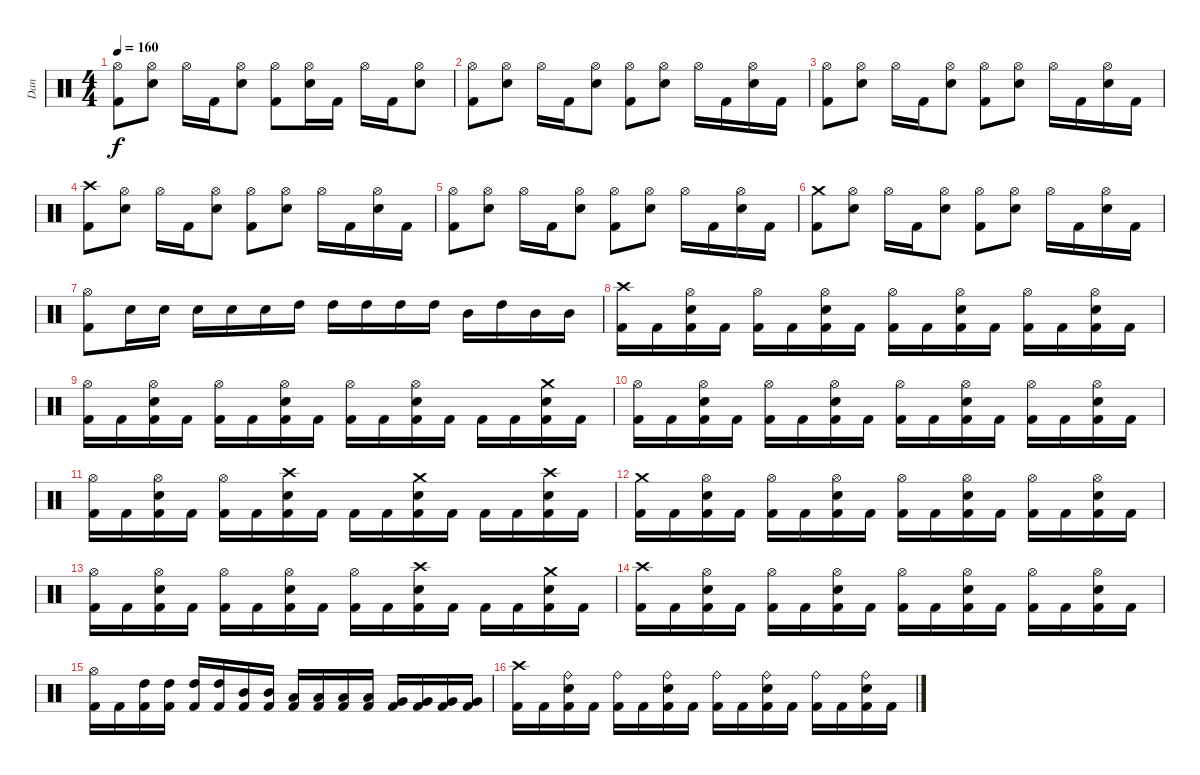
\track ("Dan " "Dan ") {instrument percussion}
\staff {score}
\articulation defaults
\ts (4 4)
\tempo 160
\clef neutral
\ks c
("Kick (hit) 2" "Hi-Hat (open)").8{dy f} ("Metronome (bell)" "Hi-Hat (open)").8 "Hi-Hat (open)".16 "Kick (hit) 2".16 ("Metronome (bell)" "Hi-Hat (open)").8 ("Kick (hit) 2" "Hi-Hat (open)").8 ("Metronome (bell)" "Hi-Hat (open)").16 "Kick (hit) 2".16 "Hi-Hat (open)".16 "Kick (hit) 2".16 ("Metronome (bell)" "Hi-Hat (open)").8 |
("Kick (hit) 2" "Hi-Hat (open)").8 ("Metronome (bell)" "Hi-Hat (open)").8 "Hi-Hat (open)".16 "Kick (hit) 2".16 ("Metronome (bell)" "Hi-Hat (open)").8 ("Kick (hit) 2" "Hi-Hat (open)").8 ("Metronome (bell)" "Hi-Hat (open)").8 "Hi-Hat (open)".16 "Kick (hit) 2".16 ("Metronome (bell)" "Hi-Hat (open)").16 "Kick (hit) 2".16 |
("Kick (hit) 2" "Hi-Hat (open)").8 ("Metronome (bell)" "Hi-Hat (open)").8 "Hi-Hat (open)".16 "Kick (hit) 2".16 ("Metronome (bell)" "Hi-Hat (open)").8 ("Kick (hit) 2" "Hi-Hat (open)").8 ("Metronome (bell)" "Hi-Hat (open)").8 "Hi-Hat (open)".16 "Kick (hit) 2".16 ("Metronome (bell)" "Hi-Hat (open)").16 "Kick (hit) 2".16 |
("Kick (hit) 2" "Crash high (hit)").8 ("Metronome (bell)" "Hi-Hat (open)").8 "Hi-Hat (open)".16 "Kick (hit) 2".16 ("Metronome (bell)" "Hi-Hat (open)").8 ("Kick (hit) 2" "Hi-Hat (open)").8 ("Metronome (bell)" "Hi-Hat (open)").8 "Hi-Hat (open)".16 "Kick (hit) 2".16 ("Metronome (bell)" "Hi-Hat (open)").16 "Kick (hit) 2".16 |
("Kick (hit) 2" "Hi-Hat (open)").8 ("Metronome (bell)" "Hi-Hat (open)").8 "Hi-Hat (open)".16 "Kick (hit) 2".16 ("Metronome (bell)" "Hi-Hat (open)").8 ("Kick (hit) 2" "Hi-Hat (open)").8 ("Metronome (bell)" "Hi-Hat (open)").8 "Hi-Hat (open)".16 "Kick (hit) 2".16 ("Metronome (bell)" "Hi-Hat (open)").16 "Kick (hit) 2".16 |
("Kick (hit) 2" "Crash medium (hit)").8 ("Metronome (bell)" "Hi-Hat (open)").8 "Hi-Hat (open)".16 "Kick (hit) 2".16 ("Metronome (bell)" "Hi-Hat (open)").8 ("Kick (hit) 2" "Hi-Hat (open)").8 ("Metronome (bell)" "Hi-Hat (open)").8 "Hi-Hat (open)".16 "Kick (hit) 2".16 ("Metronome (bell)" "Hi-Hat (open)").16 "Kick (hit) 2".16 |
("Kick (hit) 2" "Hi-Hat (open)").8 "Metronome (bell)".16 "Metronome (bell)".16 "Metronome (bell)".16 "Metronome (bell)".16 "Metronome (bell)".16 "High Tom (hit)".16 "High Tom (hit)".16 "High Tom (hit)".16 "High Tom (hit)".16 "High Tom (hit)".16 "Mid Tom (hit)".16 "High Tom (hit)".16 "Mid Tom (hit)".16 "Mid Tom (hit)".16 |
("Kick (hit) 2" "Crash high (hit)").16 "Kick (hit) 2".16 ("Metronome (bell)" "Kick (hit) 2" "Hi-Hat (open)").16 "Kick (hit) 2".16 ("Kick (hit) 2" "Hi-Hat (open)").16 "Kick (hit) 2".16 ("Metronome (bell)" "Kick (hit) 2" "Hi-Hat (open)").16 "Kick (hit) 2".16 ("Kick (hit) 2" "Hi-Hat (open)").16 "Kick (hit) 2".16 ("Metronome (bell)" "Kick (hit) 2" "Hi-Hat (open)").16 "Kick (hit) 2".16 ("Kick (hit) 2" "Hi-Hat (open)").16 "Kick (hit) 2".16 ("Metronome (bell)" "Kick (hit) 2" "Hi-Hat (open)").16 "Kick (hit) 2".16 |
("Kick (hit) 2" "Hi-Hat (open)").16 "Kick (hit) 2".16 ("Metronome (bell)" "Kick (hit) 2" "Hi-Hat (open)").16 "Kick (hit) 2".16 ("Kick (hit) 2" "Hi-Hat (open)").16 "Kick (hit) 2".16 ("Metronome (bell)" "Kick (hit) 2" "Hi-Hat (open)").16 "Kick (hit) 2".16 ("Kick (hit) 2" "Hi-Hat (open)").16 "Kick (hit) 2".16 ("Metronome (bell)" "Kick (hit) 2" "Hi-Hat (open)").16 "Kick (hit) 2".16 "Kick (hit) 2".16 "Kick (hit) 2".16 ("Metronome (bell)" "Kick (hit) 2" "Crash medium (hit)").16 "Kick (hit) 2".16 |
("Kick (hit) 2" "Hi-Hat (open)").16 "Kick (hit) 2".16 ("Metronome (bell)" "Kick (hit) 2" "Hi-Hat (open)").16 "Kick (hit) 2".16 ("Kick (hit) 2" "Hi-Hat (open)").16 "Kick (hit) 2".16 ("Metronome (bell)" "Kick (hit) 2" "Hi-Hat (open)").16 "Kick (hit) 2".16 ("Kick (hit) 2" "Hi-Hat (open)").16 "Kick (hit) 2".16 ("Metronome (bell)" "Kick (hit) 2" "Hi-Hat (open)").16 "Kick (hit) 2".16 ("Kick (hit) 2" "Hi-Hat (open)").16 "Kick (hit) 2".16 ("Metronome (bell)" "Kick (hit) 2" "Hi-Hat (open)").16 "Kick (hit) 2".16 |
("Kick (hit) 2" "Hi-Hat (open)").16 "Kick (hit) 2".16 ("Metronome (bell)" "Kick (hit) 2" "Hi-Hat (open)").16 "Kick (hit) 2".16 ("Kick (hit) 2" "Hi-Hat (open)").16 "Kick (hit) 2".16 ("Metronome (bell)" "Kick (hit) 2" "Crash high (hit)").16 "Kick (hit) 2".16 "Kick (hit) 2".16 "Kick (hit) 2".16 ("Metronome (bell)" "Kick (hit) 2" "Crash medium (hit)").16 "Kick (hit) 2".16 "Kick (hit) 2".16 "Kick (hit) 2".16 ("Metronome (bell)" "Kick (hit) 2" "Crash high (hit)").16 "Kick (hit) 2".16 |
("Kick (hit) 2" "Crash medium (hit)").16 "Kick (hit) 2".16 ("Metronome (bell)" "Kick (hit) 2" "Hi-Hat (open)").16 "Kick (hit) 2".16 ("Kick (hit) 2" "Hi-Hat (open)").16 "Kick (hit) 2".16 ("Metronome (bell)" "Kick (hit) 2" "Hi-Hat (open)").16 "Kick (hit) 2".16 ("Kick (hit) 2" "Hi-Hat (open)").16 "Kick (hit) 2".16 ("Metronome (bell)" "Kick (hit) 2" "Hi-Hat (open)").16 "Kick (hit) 2".16 ("Kick (hit) 2" "Hi-Hat (open)").16 "Kick (hit) 2".16 ("Metronome (bell)" "Kick (hit) 2" "Hi-Hat (open)").16 "Kick (hit) 2".16 |
("Kick (hit) 2" "Hi-Hat (open)").16 "Kick (hit) 2".16 ("Metronome (bell)" "Kick (hit) 2" "Hi-Hat (open)").16 "Kick (hit) 2".16 ("Kick (hit) 2" "Hi-Hat (open)").16 "Kick (hit) 2".16 ("Metronome (bell)" "Kick (hit) 2" "Hi-Hat (open)").16 "Kick (hit) 2".16 ("Kick (hit) 2" "Hi-Hat (open)").16 "Kick (hit) 2".16 ("Metronome (bell)" "Kick (hit) 2" "Crash high (hit)").16 "Kick (hit) 2".16 "Kick (hit) 2".16 "Kick (hit) 2".16 ("Metronome (bell)" "Kick (hit) 2" "Crash medium (hit)").16 "Kick (hit) 2".16 |
("Kick (hit) 2" "Crash high (hit)").16 "Kick (hit) 2".16 ("Metronome (bell)" "Kick (hit) 2" "Hi-Hat (open)").16 "Kick (hit) 2".16 ("Kick (hit) 2" "Hi-Hat (open)").16 "Kick (hit) 2".16 ("Metronome (bell)" "Kick (hit) 2" "Hi-Hat (open)").16 "Kick (hit) 2".16 ("Kick (hit) 2" "Hi-Hat (open)").16 "Kick (hit) 2".16 ("Metronome (bell)" "Kick (hit) 2" "Hi-Hat (open)").16 "Kick (hit) 2".16 ("Kick (hit) 2" "Hi-Hat (open)").16 "Kick (hit) 2".16 ("Metronome (bell)" "Kick (hit) 2" "Hi-Hat (open)").16 "Kick (hit) 2".16 |
("Kick (hit) 2" "Hi-Hat (open)").16 "Kick (hit) 2".16 ("Kick (hit) 2" "High Tom (hit)").16 ("Kick (hit) 2" "High Tom (hit)").16 ("Kick (hit) 2" "High Tom (hit)").16 ("Kick (hit) 2" "High Tom (hit)").16 ("Kick (hit) 2" "Mid Tom (hit)").16 ("Kick (hit) 2" "Mid Tom (hit)").16 ("Kick (hit) 2" "Low Tom (hit)").16 ("Kick (hit) 2" "Low Tom (hit)").16 ("Kick (hit) 2" "Low Tom (hit)").16 ("Kick (hit) 2" "Low Tom (hit)").16 ("Kick (hit) 2" "Very Low Tom (hit)").16 ("Kick (hit) 2" "Very Low Tom (hit)").16 ("Kick (hit) 2" "Very Low Tom (hit)").16 ("Kick (hit) 2" "Very Low Tom (hit)").16 |
("Kick (hit) 2" "Crash high (hit)").16 "Kick (hit) 2".16 ("Metronome (bell)" "Kick (hit) 2" "Ride (bell)").16 "Kick (hit) 2".16 ("Kick (hit) 2" "Ride (bell)").16 "Kick (hit) 2".16 ("Metronome (bell)" "Kick (hit) 2" "Ride (bell)").16 "Kick (hit) 2".16 ("Kick (hit) 2" "Ride (bell)").16 "Kick (hit) 2".16 ("Metronome (bell)" "Kick (hit) 2" "Ride (bell)").16 "Kick (hit) 2".16 ("Kick (hit) 2" "Ride (bell)").16 "Kick (hit) 2".16 ("Metronome (bell)" "Kick (hit) 2" "Ride (bell)").16 "Kick (hit) 2".16
